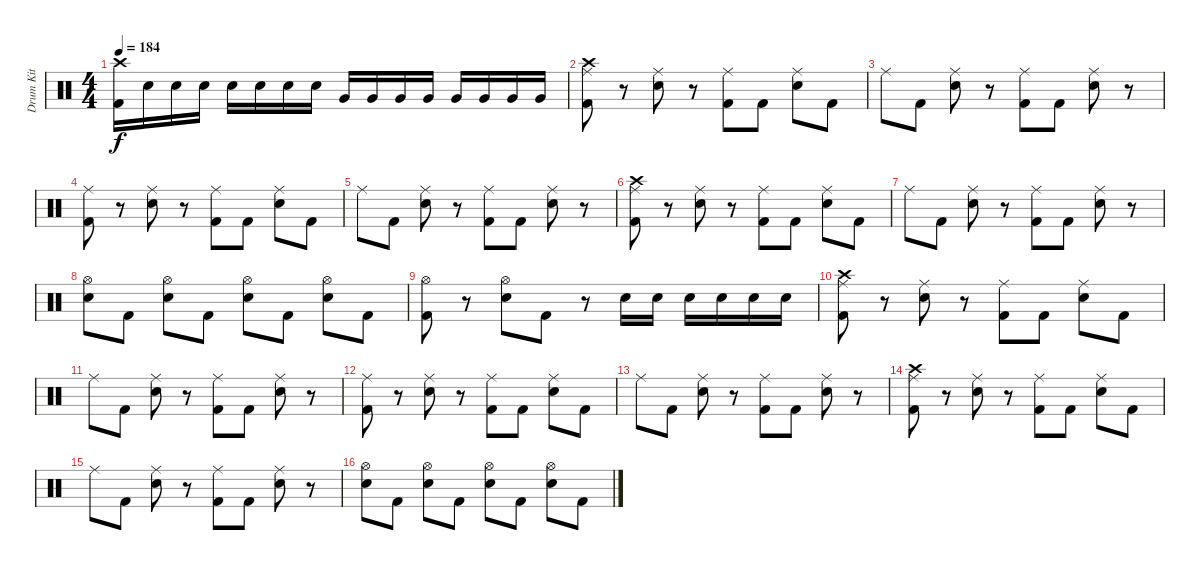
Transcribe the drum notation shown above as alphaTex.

\track ("Drum Kit" "Drum Kit") {instrument percussion}
\staff {score}
\articulation defaults
\ts (4 4)
\tempo 184
\clef neutral
\ks c
("Crash high (hit)" "Kick (hit) 2").16{dy f} "Snare (hit) 2".16 "Snare (hit) 2".16 "Snare (hit) 2".16 "Snare (hit) 2".16 "Snare (hit) 2".16 "Snare (hit) 2".16 "Snare (hit) 2".16 "Very Low Tom (hit)".16 "Very Low Tom (hit)".16 "Very Low Tom (hit)".16 "Very Low Tom (hit)".16 "Very Low Tom (hit)".16 "Very Low Tom (hit)".16 "Very Low Tom (hit)".16 "Very Low Tom (hit)".16 |
("Crash high (hit)" "Ride (middle)" "Kick (hit) 2").8 r.8 ("Ride (middle)" "Snare (hit) 2").8 r.8 ("Ride (middle)" "Kick (hit) 2").8 "Kick (hit) 2".8 ("Ride (middle)" "Snare (hit) 2").8 "Kick (hit) 2".8 |
"Ride (middle)".8 "Kick (hit) 2".8 ("Ride (middle)" "Snare (hit) 2").8 r.8 ("Ride (middle)" "Kick (hit) 2").8 "Kick (hit) 2".8 ("Ride (middle)" "Snare (hit) 2").8 r.8 |
("Ride (middle)" "Kick (hit) 2").8 r.8 ("Ride (middle)" "Snare (hit) 2").8 r.8 ("Ride (middle)" "Kick (hit) 2").8 "Kick (hit) 2".8 ("Ride (middle)" "Snare (hit) 2").8 "Kick (hit) 2".8 |
"Ride (middle)".8 "Kick (hit) 2".8 ("Ride (middle)" "Snare (hit) 2").8 r.8 ("Ride (middle)" "Kick (hit) 2").8 "Kick (hit) 2".8 ("Ride (middle)" "Snare (hit) 2").8 r.8 |
("Crash high (hit)" "Ride (middle)" "Kick (hit) 2").8 r.8 ("Ride (middle)" "Snare (hit) 2").8 r.8 ("Ride (middle)" "Kick (hit) 2").8 "Kick (hit) 2".8 ("Ride (middle)" "Snare (hit) 2").8 "Kick (hit) 2".8 |
"Ride (middle)".8 "Kick (hit) 2".8 ("Ride (middle)" "Snare (hit) 2").8 r.8 ("Ride (middle)" "Kick (hit) 2").8 "Kick (hit) 2".8 ("Ride (middle)" "Snare (hit) 2").8 r.8 |
("Hi-Hat (open)" "Snare (hit) 2").8 "Kick (hit) 2".8 ("Hi-Hat (open)" "Snare (hit) 2").8 "Kick (hit) 2".8 ("Hi-Hat (open)" "Snare (hit) 2").8 "Kick (hit) 2".8 ("Hi-Hat (open)" "Snare (hit) 2").8 "Kick (hit) 2".8 |
("Hi-Hat (open)" "Kick (hit) 2").8 r.8 ("Hi-Hat (open)" "Snare (hit) 2").8 "Kick (hit) 2".8 r.8 "Snare (hit) 2".16 "Snare (hit) 2".16 "Snare (hit) 2".16 "Snare (hit) 2".16 "Snare (hit) 2".16 "Snare (hit) 2".16 |
("Crash high (hit)" "Ride (middle)" "Kick (hit) 2").8 r.8 ("Ride (middle)" "Snare (hit) 2").8 r.8 ("Ride (middle)" "Kick (hit) 2").8 "Kick (hit) 2".8 ("Ride (middle)" "Snare (hit) 2").8 "Kick (hit) 2".8 |
"Ride (middle)".8 "Kick (hit) 2".8 ("Ride (middle)" "Snare (hit) 2").8 r.8 ("Ride (middle)" "Kick (hit) 2").8 "Kick (hit) 2".8 ("Ride (middle)" "Snare (hit) 2").8 r.8 |
("Ride (middle)" "Kick (hit) 2").8 r.8 ("Ride (middle)" "Snare (hit) 2").8 r.8 ("Ride (middle)" "Kick (hit) 2").8 "Kick (hit) 2".8 ("Ride (middle)" "Snare (hit) 2").8 "Kick (hit) 2".8 |
"Ride (middle)".8 "Kick (hit) 2".8 ("Ride (middle)" "Snare (hit) 2").8 r.8 ("Ride (middle)" "Kick (hit) 2").8 "Kick (hit) 2".8 ("Ride (middle)" "Snare (hit) 2").8 r.8 |
("Crash high (hit)" "Ride (middle)" "Kick (hit) 2").8 r.8 ("Ride (middle)" "Snare (hit) 2").8 r.8 ("Ride (middle)" "Kick (hit) 2").8 "Kick (hit) 2".8 ("Ride (middle)" "Snare (hit) 2").8 "Kick (hit) 2".8 |
"Ride (middle)".8 "Kick (hit) 2".8 ("Ride (middle)" "Snare (hit) 2").8 r.8 ("Ride (middle)" "Kick (hit) 2").8 "Kick (hit) 2".8 ("Ride (middle)" "Snare (hit) 2").8 r.8 |
("Hi-Hat (open)" "Snare (hit) 2").8 "Kick (hit) 2".8 ("Hi-Hat (open)" "Snare (hit) 2").8 "Kick (hit) 2".8 ("Hi-Hat (open)" "Snare (hit) 2").8 "Kick (hit) 2".8 ("Hi-Hat (open)" "Snare (hit) 2").8 "Kick (hit) 2".8
